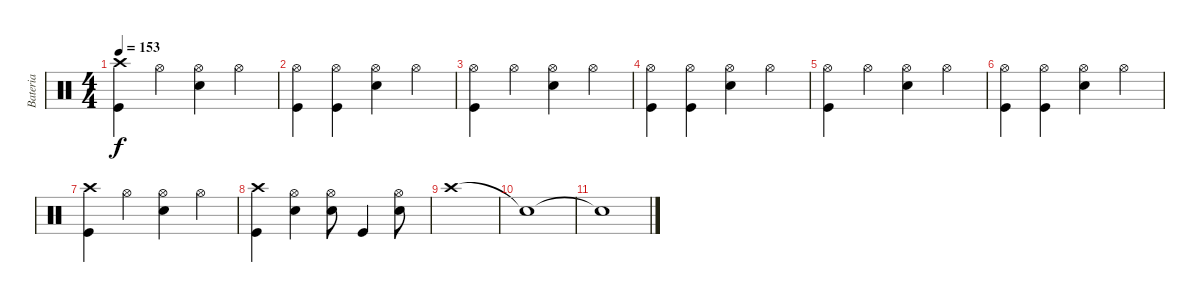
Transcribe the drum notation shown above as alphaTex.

\track ("Bateria" "Bateria") {instrument percussion}
\staff {score}
\articulation defaults
\ts (4 4)
\tempo 153
\clef neutral
\ks c
("Crash high (hit)" "Kick (hit)").4{dy f} "Hi-Hat (open)".4 ("Hi-Hat (open)" "Electric Snare (hit)").4 "Hi-Hat (open)".4 |
("Hi-Hat (open)" "Kick (hit)").4 ("Hi-Hat (open)" "Kick (hit)").4 ("Hi-Hat (open)" "Electric Snare (hit)").4 "Hi-Hat (open)".4 |
("Hi-Hat (open)" "Kick (hit)").4 "Hi-Hat (open)".4 ("Hi-Hat (open)" "Electric Snare (hit)").4 "Hi-Hat (open)".4 |
("Hi-Hat (open)" "Kick (hit)").4 ("Hi-Hat (open)" "Kick (hit)").4 ("Hi-Hat (open)" "Electric Snare (hit)").4 "Hi-Hat (open)".4 |
("Hi-Hat (open)" "Kick (hit)").4 "Hi-Hat (open)".4 ("Hi-Hat (open)" "Electric Snare (hit)").4 "Hi-Hat (open)".4 |
("Hi-Hat (open)" "Kick (hit)").4 ("Hi-Hat (open)" "Kick (hit)").4 ("Hi-Hat (open)" "Electric Snare (hit)").4 "Hi-Hat (open)".4 |
("Crash high (hit)" "Kick (hit)").4 "Hi-Hat (open)".4 ("Hi-Hat (open)" "Electric Snare (hit)").4 "Hi-Hat (open)".4 |
("Crash high (hit)" "Kick (hit)").4 ("Hi-Hat (open)" "Electric Snare (hit)").4 ("Hi-Hat (open)" "Electric Snare (hit)").8 "Kick (hit)".4 ("Hi-Hat (open)" "Electric Snare (hit)").8 |
"Crash high (hit)".1 |
"Snare (hit)"{t}.1 |
"Snare (hit)"{t}.1
